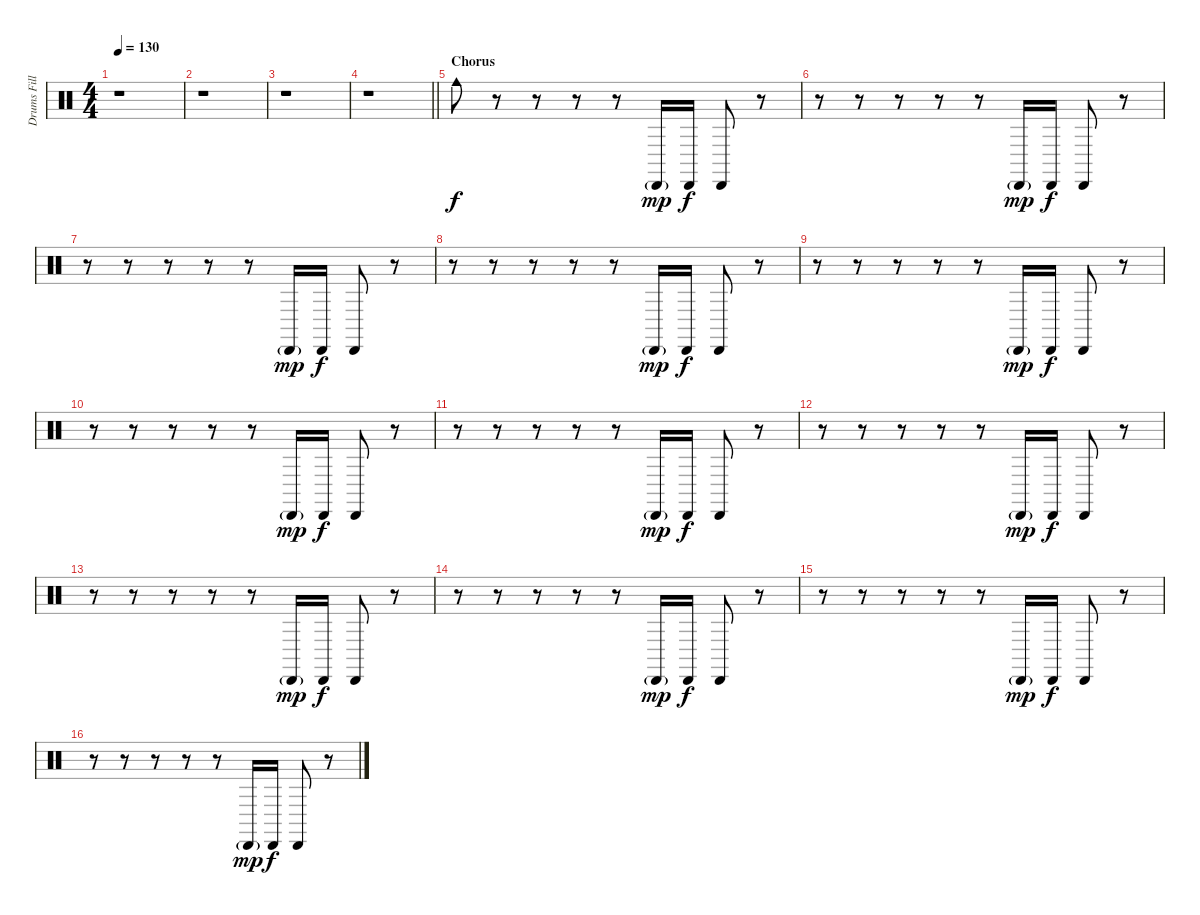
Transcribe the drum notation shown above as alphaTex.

\track ("Drums Fill" "Drums Fill") {instrument percussion}
\staff {score}
\articulation defaults
\ts (4 4)
\tempo 130
\clef neutral
\ks c
r.1{dy f} |
r.1 |
r.1 |
\barLineRight lightlight
r.1 |
\section ("" "Chorus")
"Cowbell medium (hit)".8 r.8 r.8 r.8 r.8 "Cabasa (hit)"{g}.16{dy mp} "Cabasa (hit)".16{dy f} "Cabasa (hit)".8 r.8 |
r.8 r.8 r.8 r.8 r.8 "Cabasa (hit)"{g}.16{dy mp} "Cabasa (hit)".16{dy f} "Cabasa (hit)".8 r.8 |
r.8 r.8 r.8 r.8 r.8 "Cabasa (hit)"{g}.16{dy mp} "Cabasa (hit)".16{dy f} "Cabasa (hit)".8 r.8 |
r.8 r.8 r.8 r.8 r.8 "Cabasa (hit)"{g}.16{dy mp} "Cabasa (hit)".16{dy f} "Cabasa (hit)".8 r.8 |
r.8 r.8 r.8 r.8 r.8 "Cabasa (hit)"{g}.16{dy mp} "Cabasa (hit)".16{dy f} "Cabasa (hit)".8 r.8 |
r.8 r.8 r.8 r.8 r.8 "Cabasa (hit)"{g}.16{dy mp} "Cabasa (hit)".16{dy f} "Cabasa (hit)".8 r.8 |
r.8 r.8 r.8 r.8 r.8 "Cabasa (hit)"{g}.16{dy mp} "Cabasa (hit)".16{dy f} "Cabasa (hit)".8 r.8 |
r.8 r.8 r.8 r.8 r.8 "Cabasa (hit)"{g}.16{dy mp} "Cabasa (hit)".16{dy f} "Cabasa (hit)".8 r.8 |
r.8 r.8 r.8 r.8 r.8 "Cabasa (hit)"{g}.16{dy mp} "Cabasa (hit)".16{dy f} "Cabasa (hit)".8 r.8 |
r.8 r.8 r.8 r.8 r.8 "Cabasa (hit)"{g}.16{dy mp} "Cabasa (hit)".16{dy f} "Cabasa (hit)".8 r.8 |
r.8 r.8 r.8 r.8 r.8 "Cabasa (hit)"{g}.16{dy mp} "Cabasa (hit)".16{dy f} "Cabasa (hit)".8 r.8 |
r.8 r.8 r.8 r.8 r.8 "Cabasa (hit)"{g}.16{dy mp} "Cabasa (hit)".16{dy f} "Cabasa (hit)".8 r.8
